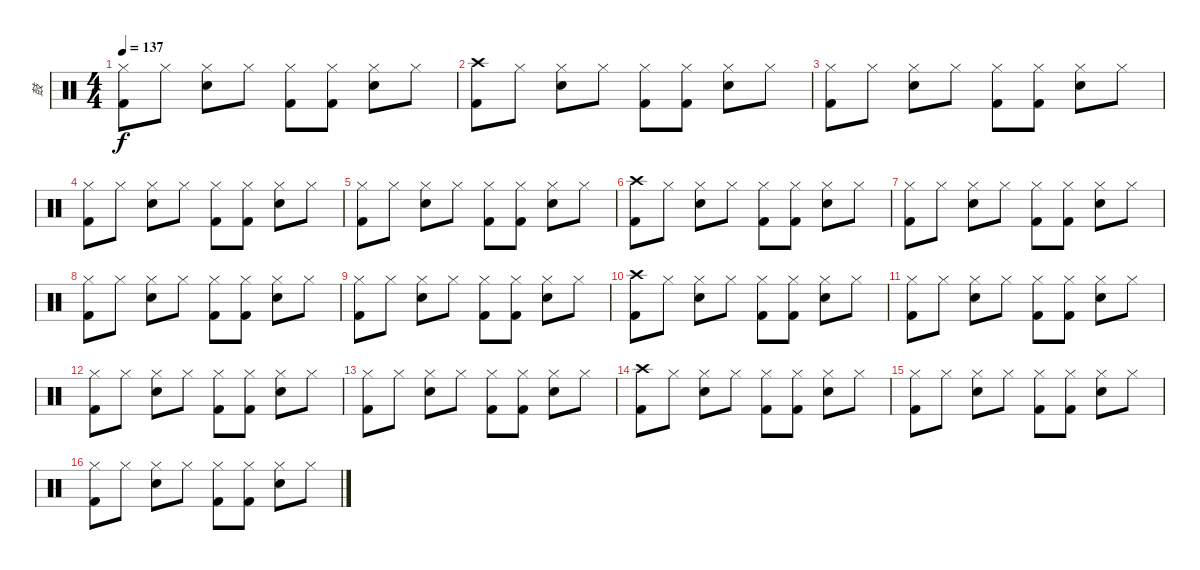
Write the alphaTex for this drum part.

\track ("鼓" "鼓") {instrument percussion}
\staff {score}
\articulation defaults
\ts (4 4)
\tempo 137
\clef neutral
\ks c
("Hi-Hat (closed)" "Kick (hit) 2").8{dy f} "Hi-Hat (closed)".8 ("Hi-Hat (closed)" "Snare (hit) 2").8 "Hi-Hat (closed)".8 ("Hi-Hat (closed)" "Kick (hit) 2").8 ("Hi-Hat (closed)" "Kick (hit) 2").8 ("Hi-Hat (closed)" "Snare (hit) 2").8 "Hi-Hat (closed)".8 |
("Crash high (hit)" "Kick (hit) 2").8 "Hi-Hat (closed)".8 ("Hi-Hat (closed)" "Snare (hit) 2").8 "Hi-Hat (closed)".8 ("Hi-Hat (closed)" "Kick (hit) 2").8 ("Hi-Hat (closed)" "Kick (hit) 2").8 ("Hi-Hat (closed)" "Snare (hit) 2").8 "Hi-Hat (closed)".8 |
("Hi-Hat (closed)" "Kick (hit) 2").8 "Hi-Hat (closed)".8 ("Hi-Hat (closed)" "Snare (hit) 2").8 "Hi-Hat (closed)".8 ("Hi-Hat (closed)" "Kick (hit) 2").8 ("Hi-Hat (closed)" "Kick (hit) 2").8 ("Hi-Hat (closed)" "Snare (hit) 2").8 "Hi-Hat (closed)".8 |
("Hi-Hat (closed)" "Kick (hit) 2").8 "Hi-Hat (closed)".8 ("Hi-Hat (closed)" "Snare (hit) 2").8 "Hi-Hat (closed)".8 ("Hi-Hat (closed)" "Kick (hit) 2").8 ("Hi-Hat (closed)" "Kick (hit) 2").8 ("Hi-Hat (closed)" "Snare (hit) 2").8 "Hi-Hat (closed)".8 |
("Hi-Hat (closed)" "Kick (hit) 2").8 "Hi-Hat (closed)".8 ("Hi-Hat (closed)" "Snare (hit) 2").8 "Hi-Hat (closed)".8 ("Hi-Hat (closed)" "Kick (hit) 2").8 ("Hi-Hat (closed)" "Kick (hit) 2").8 ("Hi-Hat (closed)" "Snare (hit) 2").8 "Hi-Hat (closed)".8 |
("Crash high (hit)" "Kick (hit) 2").8 "Hi-Hat (closed)".8 ("Hi-Hat (closed)" "Snare (hit) 2").8 "Hi-Hat (closed)".8 ("Hi-Hat (closed)" "Kick (hit) 2").8 ("Hi-Hat (closed)" "Kick (hit) 2").8 ("Hi-Hat (closed)" "Snare (hit) 2").8 "Hi-Hat (closed)".8 |
("Hi-Hat (closed)" "Kick (hit) 2").8 "Hi-Hat (closed)".8 ("Hi-Hat (closed)" "Snare (hit) 2").8 "Hi-Hat (closed)".8 ("Hi-Hat (closed)" "Kick (hit) 2").8 ("Hi-Hat (closed)" "Kick (hit) 2").8 ("Hi-Hat (closed)" "Snare (hit) 2").8 "Hi-Hat (closed)".8 |
("Hi-Hat (closed)" "Kick (hit) 2").8 "Hi-Hat (closed)".8 ("Hi-Hat (closed)" "Snare (hit) 2").8 "Hi-Hat (closed)".8 ("Hi-Hat (closed)" "Kick (hit) 2").8 ("Hi-Hat (closed)" "Kick (hit) 2").8 ("Hi-Hat (closed)" "Snare (hit) 2").8 "Hi-Hat (closed)".8 |
("Hi-Hat (closed)" "Kick (hit) 2").8 "Hi-Hat (closed)".8 ("Hi-Hat (closed)" "Snare (hit) 2").8 "Hi-Hat (closed)".8 ("Hi-Hat (closed)" "Kick (hit) 2").8 ("Hi-Hat (closed)" "Kick (hit) 2").8 ("Hi-Hat (closed)" "Snare (hit) 2").8 "Hi-Hat (closed)".8 |
("Crash high (hit)" "Kick (hit) 2").8 "Hi-Hat (closed)".8 ("Hi-Hat (closed)" "Snare (hit) 2").8 "Hi-Hat (closed)".8 ("Hi-Hat (closed)" "Kick (hit) 2").8 ("Hi-Hat (closed)" "Kick (hit) 2").8 ("Hi-Hat (closed)" "Snare (hit) 2").8 "Hi-Hat (closed)".8 |
("Hi-Hat (closed)" "Kick (hit) 2").8 "Hi-Hat (closed)".8 ("Hi-Hat (closed)" "Snare (hit) 2").8 "Hi-Hat (closed)".8 ("Hi-Hat (closed)" "Kick (hit) 2").8 ("Hi-Hat (closed)" "Kick (hit) 2").8 ("Hi-Hat (closed)" "Snare (hit) 2").8 "Hi-Hat (closed)".8 |
("Hi-Hat (closed)" "Kick (hit) 2").8 "Hi-Hat (closed)".8 ("Hi-Hat (closed)" "Snare (hit) 2").8 "Hi-Hat (closed)".8 ("Hi-Hat (closed)" "Kick (hit) 2").8 ("Hi-Hat (closed)" "Kick (hit) 2").8 ("Hi-Hat (closed)" "Snare (hit) 2").8 "Hi-Hat (closed)".8 |
("Hi-Hat (closed)" "Kick (hit) 2").8 "Hi-Hat (closed)".8 ("Hi-Hat (closed)" "Snare (hit) 2").8 "Hi-Hat (closed)".8 ("Hi-Hat (closed)" "Kick (hit) 2").8 ("Hi-Hat (closed)" "Kick (hit) 2").8 ("Hi-Hat (closed)" "Snare (hit) 2").8 "Hi-Hat (closed)".8 |
("Crash high (hit)" "Kick (hit) 2").8 "Hi-Hat (closed)".8 ("Hi-Hat (closed)" "Snare (hit) 2").8 "Hi-Hat (closed)".8 ("Hi-Hat (closed)" "Kick (hit) 2").8 ("Hi-Hat (closed)" "Kick (hit) 2").8 ("Hi-Hat (closed)" "Snare (hit) 2").8 "Hi-Hat (closed)".8 |
("Hi-Hat (closed)" "Kick (hit) 2").8 "Hi-Hat (closed)".8 ("Hi-Hat (closed)" "Snare (hit) 2").8 "Hi-Hat (closed)".8 ("Hi-Hat (closed)" "Kick (hit) 2").8 ("Hi-Hat (closed)" "Kick (hit) 2").8 ("Hi-Hat (closed)" "Snare (hit) 2").8 "Hi-Hat (closed)".8 |
("Hi-Hat (closed)" "Kick (hit) 2").8 "Hi-Hat (closed)".8 ("Hi-Hat (closed)" "Snare (hit) 2").8 "Hi-Hat (closed)".8 ("Hi-Hat (closed)" "Kick (hit) 2").8 ("Hi-Hat (closed)" "Kick (hit) 2").8 ("Hi-Hat (closed)" "Snare (hit) 2").8 "Hi-Hat (closed)".8
